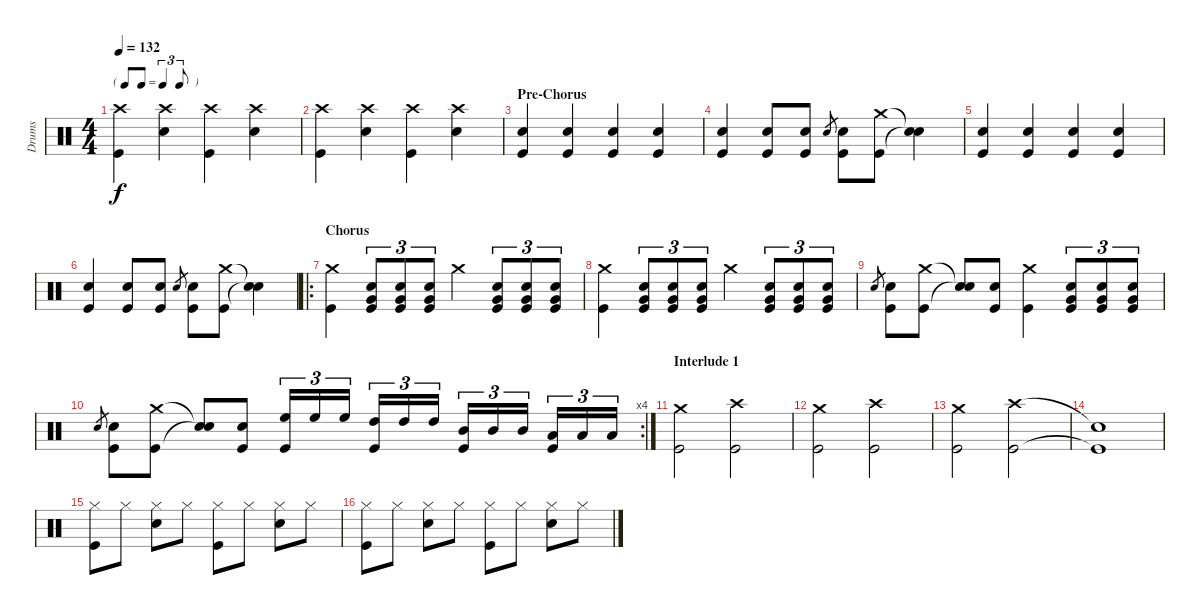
\track ("Drums" "Drums") {instrument percussion}
\staff {score}
\articulation defaults
\ts (4 4)
\tf triplet8th
\tempo 132
\clef neutral
\ks c
("Crash high (hit)" "Kick (hit)").4{dy f} ("Crash high (hit)" "Snare (hit) 2").4 ("Crash high (hit)" "Kick (hit)").4 ("Crash high (hit)" "Snare (hit) 2").4 |
("Crash high (hit)" "Kick (hit)").4 ("Crash high (hit)" "Snare (hit) 2").4 ("Crash high (hit)" "Kick (hit)").4 ("Crash high (hit)" "Snare (hit) 2").4 |
\section ("" "Pre-Chorus")
("Snare (hit) 2" "Kick (hit)").4 ("Snare (hit) 2" "Kick (hit)").4 ("Snare (hit) 2" "Kick (hit)").4 ("Snare (hit) 2" "Kick (hit)").4 |
("Snare (hit) 2" "Kick (hit)").4 ("Snare (hit) 2" "Kick (hit)").8 ("Snare (hit) 2" "Kick (hit)").8 "Snare (hit) 2".8{gr} ("Snare (hit) 2" "Kick (hit)").8 ("Crash medium (hit)" "Kick (hit)").8 ("Snare (hit)"{t} "Snare (hit)"{t}).4 |
("Snare (hit) 2" "Kick (hit)").4 ("Snare (hit) 2" "Kick (hit)").4 ("Snare (hit) 2" "Kick (hit)").4 ("Snare (hit) 2" "Kick (hit)").4 |
("Snare (hit) 2" "Kick (hit)").4 ("Snare (hit) 2" "Kick (hit)").8 ("Snare (hit) 2" "Kick (hit)").8 "Snare (hit) 2".8{gr} ("Snare (hit) 2" "Kick (hit)").8 ("Crash medium (hit)" "Kick (hit)").8 ("Snare (hit)"{t} "Snare (hit)"{t}).4 |
\ro
\section ("" "Chorus")
("Crash medium (hit)" "Kick (hit)").4 ("Very Low Tom (hit)" "Snare (hit) 2" "Kick (hit)").8{tu (3 2)} ("Very Low Tom (hit)" "Snare (hit) 2" "Kick (hit)").8{tu (3 2)} ("Very Low Tom (hit)" "Snare (hit) 2" "Kick (hit)").8{tu (3 2)} "Crash medium (hit)".4 ("Very Low Tom (hit)" "Snare (hit) 2" "Kick (hit)").8{tu (3 2)} ("Very Low Tom (hit)" "Snare (hit) 2" "Kick (hit)").8{tu (3 2)} ("Very Low Tom (hit)" "Snare (hit) 2" "Kick (hit)").8{tu (3 2)} |
("Crash medium (hit)" "Kick (hit)").4 ("Very Low Tom (hit)" "Snare (hit) 2" "Kick (hit)").8{tu (3 2)} ("Very Low Tom (hit)" "Snare (hit) 2" "Kick (hit)").8{tu (3 2)} ("Very Low Tom (hit)" "Snare (hit) 2" "Kick (hit)").8{tu (3 2)} "Crash medium (hit)".4 ("Very Low Tom (hit)" "Snare (hit) 2" "Kick (hit)").8{tu (3 2)} ("Very Low Tom (hit)" "Snare (hit) 2" "Kick (hit)").8{tu (3 2)} ("Very Low Tom (hit)" "Snare (hit) 2" "Kick (hit)").8{tu (3 2)} |
"Snare (hit) 2".8{gr} ("Snare (hit) 2" "Kick (hit)").8 ("Crash medium (hit)" "Kick (hit)").8 ("Snare (hit)"{t} "Snare (hit)"{t}).8 ("Snare (hit) 2" "Kick (hit)").8 ("Crash medium (hit)" "Kick (hit)").4 ("Very Low Tom (hit)" "Snare (hit) 2" "Kick (hit)").8{tu (3 2)} ("Very Low Tom (hit)" "Snare (hit) 2" "Kick (hit)").8{tu (3 2)} ("Very Low Tom (hit)" "Snare (hit) 2" "Kick (hit)").8{tu (3 2)} |
\rc 4 "Snare (hit) 2".8{gr}
("Snare (hit) 2" "Kick (hit)").8 ("Crash medium (hit)" "Kick (hit)").8 ("Snare (hit)"{t} "Snare (hit)"{t}).8 ("Snare (hit) 2" "Kick (hit)").8 ("High Floor Tom (hit)" "Kick (hit)").16{tu (3 2)} "High Floor Tom (hit)".16{tu (3 2)} "High Floor Tom (hit)".16{tu (3 2)} ("High Tom (hit)" "Kick (hit)").16{tu (3 2)} "High Tom (hit)".16{tu (3 2)} "High Tom (hit)".16{tu (3 2)} ("Mid Tom (hit)" "Kick (hit)").16{tu (3 2)} "Mid Tom (hit)".16{tu (3 2)} "Mid Tom (hit)".16{tu (3 2)} ("Low Tom (hit)" "Kick (hit)").16{tu (3 2)} "Low Tom (hit)".16{tu (3 2)} "Low Tom (hit)".16{tu (3 2)} |
\section ("" "Interlude 1")
("Crash medium (hit)" "Kick (hit)").2 ("Crash high (hit)" "Kick (hit)").2 |
("Crash medium (hit)" "Kick (hit)").2 ("Crash high (hit)" "Kick (hit)").2 |
("Crash medium (hit)" "Kick (hit)").2 ("Crash high (hit)" "Kick (hit)").2 |
("Snare (hit)"{t} "Kick (hit)"{t}).1 |
("Hi-Hat (closed)" "Kick (hit)").8 "Hi-Hat (closed)".8 ("Hi-Hat (closed)" "Snare (hit) 2").8 "Hi-Hat (closed)".8 ("Hi-Hat (closed)" "Kick (hit)").8 "Hi-Hat (closed)".8 ("Hi-Hat (closed)" "Snare (hit) 2").8 "Hi-Hat (closed)".8 |
("Hi-Hat (closed)" "Kick (hit)").8 "Hi-Hat (closed)".8 ("Hi-Hat (closed)" "Snare (hit) 2").8 "Hi-Hat (closed)".8 ("Hi-Hat (closed)" "Kick (hit)").8 "Hi-Hat (closed)".8 ("Hi-Hat (closed)" "Snare (hit) 2").8 "Hi-Hat (closed)".8
